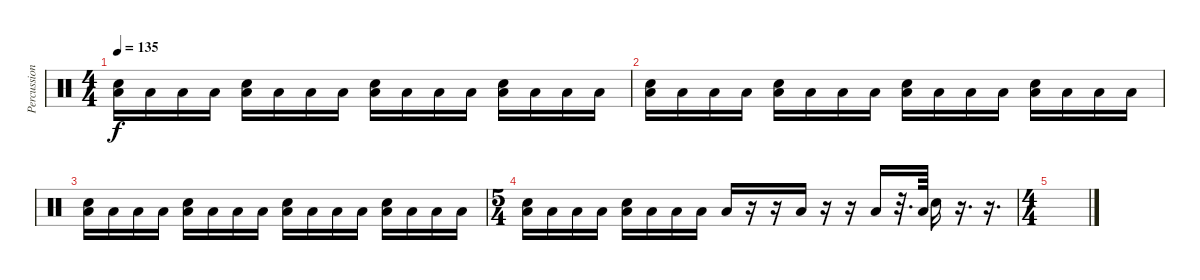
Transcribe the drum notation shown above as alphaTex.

\track ("Percussion" "Percussion") {instrument percussion}
\staff {score}
\articulation defaults
\ts (4 4)
\tempo 135
\clef neutral
\ks c
("Low Floor Tom (hit)" "Electric Snare (hit)").16{dy f} "Low Floor Tom (hit)".16 "Low Floor Tom (hit)".16 "Low Floor Tom (hit)".16 ("Low Floor Tom (hit)" "Electric Snare (hit)").16 "Low Floor Tom (hit)".16 "Low Floor Tom (hit)".16 "Low Floor Tom (hit)".16 ("Low Floor Tom (hit)" "Electric Snare (hit)").16 "Low Floor Tom (hit)".16 "Low Floor Tom (hit)".16 "Low Floor Tom (hit)".16 ("Low Floor Tom (hit)" "Electric Snare (hit)").16 "Low Floor Tom (hit)".16 "Low Floor Tom (hit)".16 "Low Floor Tom (hit)".16 |
("Low Floor Tom (hit)" "Electric Snare (hit)").16 "Low Floor Tom (hit)".16 "Low Floor Tom (hit)".16 "Low Floor Tom (hit)".16 ("Low Floor Tom (hit)" "Electric Snare (hit)").16 "Low Floor Tom (hit)".16 "Low Floor Tom (hit)".16 "Low Floor Tom (hit)".16 ("Low Floor Tom (hit)" "Electric Snare (hit)").16 "Low Floor Tom (hit)".16 "Low Floor Tom (hit)".16 "Low Floor Tom (hit)".16 ("Low Floor Tom (hit)" "Electric Snare (hit)").16 "Low Floor Tom (hit)".16 "Low Floor Tom (hit)".16 "Low Floor Tom (hit)".16 |
("Low Floor Tom (hit)" "Electric Snare (hit)").16 "Low Floor Tom (hit)".16 "Low Floor Tom (hit)".16 "Low Floor Tom (hit)".16 ("Low Floor Tom (hit)" "Electric Snare (hit)").16 "Low Floor Tom (hit)".16 "Low Floor Tom (hit)".16 "Low Floor Tom (hit)".16 ("Low Floor Tom (hit)" "Electric Snare (hit)").16 "Low Floor Tom (hit)".16 "Low Floor Tom (hit)".16 "Low Floor Tom (hit)".16 ("Low Floor Tom (hit)" "Electric Snare (hit)").16 "Low Floor Tom (hit)".16 "Low Floor Tom (hit)".16 "Low Floor Tom (hit)".16 |
\ts (5 4)
("Low Floor Tom (hit)" "Electric Snare (hit)").16 "Low Floor Tom (hit)".16 "Low Floor Tom (hit)".16 "Low Floor Tom (hit)".16 ("Low Floor Tom (hit)" "Electric Snare (hit)").16 "Low Floor Tom (hit)".16 "Low Floor Tom (hit)".16 "Low Floor Tom (hit)".16 "Low Floor Tom (hit)".16 r.16 r.16 "Low Floor Tom (hit)".16 r.16 r.16 "Low Floor Tom (hit)".16 r.32{d} "Low Floor Tom (hit)".64 "Electric Snare (hit)".16 r.16{d} r.16{d} |
\ts (4 4)
